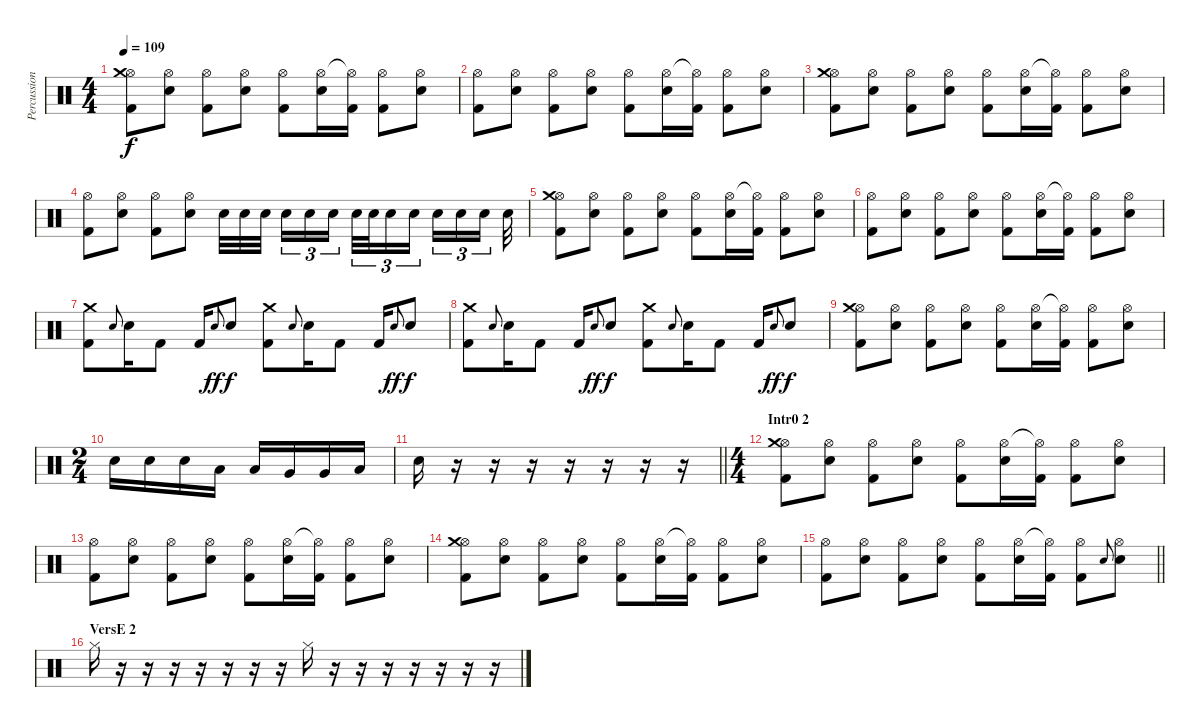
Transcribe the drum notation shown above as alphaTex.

\track ("Percussion" "Percussion") {instrument percussion}
\staff {score}
\articulation defaults
\ts (4 4)
\tempo 109
\clef neutral
\ks c
("Hi-Hat (open)" "Crash medium (hit)" "Kick (hit) 2").8{dy f} ("Hi-Hat (open)" "Electric Snare (hit)").8 ("Hi-Hat (open)" "Kick (hit) 2").8 ("Hi-Hat (open)" "Electric Snare (hit)").8 ("Hi-Hat (open)" "Kick (hit) 2").8 ("Hi-Hat (open)" "Electric Snare (hit)").16 ("Hi-Hat (open)"{t} "Kick (hit) 2").16 ("Hi-Hat (open)" "Kick (hit) 2").8 ("Hi-Hat (open)" "Electric Snare (hit)").8 |
("Hi-Hat (open)" "Kick (hit) 2").8 ("Hi-Hat (open)" "Electric Snare (hit)").8 ("Hi-Hat (open)" "Kick (hit) 2").8 ("Hi-Hat (open)" "Electric Snare (hit)").8 ("Hi-Hat (open)" "Kick (hit) 2").8 ("Hi-Hat (open)" "Electric Snare (hit)").16 ("Hi-Hat (open)"{t} "Kick (hit) 2").16 ("Hi-Hat (open)" "Kick (hit) 2").8 ("Hi-Hat (open)" "Electric Snare (hit)").8 |
("Hi-Hat (open)" "Crash medium (hit)" "Kick (hit) 2").8 ("Hi-Hat (open)" "Electric Snare (hit)").8 ("Hi-Hat (open)" "Kick (hit) 2").8 ("Hi-Hat (open)" "Electric Snare (hit)").8 ("Hi-Hat (open)" "Kick (hit) 2").8 ("Hi-Hat (open)" "Electric Snare (hit)").16 ("Hi-Hat (open)"{t} "Kick (hit) 2").16 ("Hi-Hat (open)" "Kick (hit) 2").8 ("Hi-Hat (open)" "Electric Snare (hit)").8 |
("Hi-Hat (open)" "Kick (hit) 2").8 ("Hi-Hat (open)" "Electric Snare (hit)").8 ("Hi-Hat (open)" "Kick (hit) 2").8 ("Hi-Hat (open)" "Electric Snare (hit)").8 "Electric Snare (hit)".32 "Electric Snare (hit)".32 "Electric Snare (hit)".32{beam splitsecondary} "Electric Snare (hit)".16{tu (3 2)} "Electric Snare (hit)".16{tu (3 2)} "Electric Snare (hit)".16{tu (3 2) beam splitsecondary} "Electric Snare (hit)".32{tu (3 2)} "Electric Snare (hit)".32{tu (3 2)} "Electric Snare (hit)".16{tu (3 2)} "Electric Snare (hit)".16{tu (3 2) beam splitsecondary} "Electric Snare (hit)".16{tu (3 2)} "Electric Snare (hit)".16{tu (3 2)} "Electric Snare (hit)".16{tu (3 2) beam splitsecondary} "Electric Snare (hit)".32 |
("Hi-Hat (open)" "Crash medium (hit)" "Kick (hit) 2").8 ("Hi-Hat (open)" "Electric Snare (hit)").8 ("Hi-Hat (open)" "Kick (hit) 2").8 ("Hi-Hat (open)" "Electric Snare (hit)").8 ("Hi-Hat (open)" "Kick (hit) 2").8 ("Hi-Hat (open)" "Electric Snare (hit)").16 ("Hi-Hat (open)"{t} "Kick (hit) 2").16 ("Hi-Hat (open)" "Kick (hit) 2").8 ("Hi-Hat (open)" "Electric Snare (hit)").8 |
("Hi-Hat (open)" "Kick (hit) 2").8 ("Hi-Hat (open)" "Electric Snare (hit)").8 ("Hi-Hat (open)" "Kick (hit) 2").8 ("Hi-Hat (open)" "Electric Snare (hit)").8 ("Hi-Hat (open)" "Kick (hit) 2").8 ("Hi-Hat (open)" "Electric Snare (hit)").16 ("Hi-Hat (open)"{t} "Kick (hit) 2").16 ("Hi-Hat (open)" "Kick (hit) 2").8 ("Hi-Hat (open)" "Electric Snare (hit)").8 |
("Crash medium (hit)" "Kick (hit) 2").8 "Electric Snare (hit)".8{gr onbeat} "Electric Snare (hit)".16 "Kick (hit) 2".8 "Kick (hit) 2".16 "Electric Snare (hit)".8{gr onbeat dy ff} "Electric Snare (hit)".8{dy f} ("Crash medium (hit)" "Kick (hit) 2").8 "Electric Snare (hit)".8{gr onbeat} "Electric Snare (hit)".16 "Kick (hit) 2".8 "Kick (hit) 2".16 "Electric Snare (hit)".8{gr onbeat dy ff} "Electric Snare (hit)".8{dy f} |
("Crash medium (hit)" "Kick (hit) 2").8 "Electric Snare (hit)".8{gr onbeat} "Electric Snare (hit)".16 "Kick (hit) 2".8 "Kick (hit) 2".16 "Electric Snare (hit)".8{gr onbeat dy ff} "Electric Snare (hit)".8{dy f} ("Crash medium (hit)" "Kick (hit) 2").8 "Electric Snare (hit)".8{gr onbeat} "Electric Snare (hit)".16 "Kick (hit) 2".8 "Kick (hit) 2".16 "Electric Snare (hit)".8{gr onbeat dy ff} "Electric Snare (hit)".8{dy f} |
("Hi-Hat (open)" "Crash medium (hit)" "Kick (hit) 2").8 ("Hi-Hat (open)" "Electric Snare (hit)").8 ("Hi-Hat (open)" "Kick (hit) 2").8 ("Hi-Hat (open)" "Electric Snare (hit)").8 ("Hi-Hat (open)" "Kick (hit) 2").8 ("Hi-Hat (open)" "Electric Snare (hit)").16 ("Hi-Hat (open)"{t} "Kick (hit) 2").16 ("Hi-Hat (open)" "Kick (hit) 2").8 ("Hi-Hat (open)" "Electric Snare (hit)").8 |
\ts (2 4)
"Electric Snare (hit)".16 "Electric Snare (hit)".16 "Electric Snare (hit)".16 "Low Floor Tom (hit)".16 "Low Floor Tom (hit)".16 "Very Low Tom (hit)".16 "Very Low Tom (hit)".16 "Low Floor Tom (hit)".16 |
\barLineRight lightlight "Electric Snare (hit)".16
r.16 r.16 r.16 r.16 r.16 r.16 r.16 |
\ts (4 4)
\section ("" "Intr0 2")
("Hi-Hat (open)" "Crash medium (hit)" "Kick (hit) 2").8 ("Hi-Hat (open)" "Electric Snare (hit)").8 ("Hi-Hat (open)" "Kick (hit) 2").8 ("Hi-Hat (open)" "Electric Snare (hit)").8 ("Hi-Hat (open)" "Kick (hit) 2").8 ("Hi-Hat (open)" "Electric Snare (hit)").16 ("Hi-Hat (open)"{t} "Kick (hit) 2").16 ("Hi-Hat (open)" "Kick (hit) 2").8 ("Hi-Hat (open)" "Electric Snare (hit)").8 |
("Hi-Hat (open)" "Kick (hit) 2").8 ("Hi-Hat (open)" "Electric Snare (hit)").8 ("Hi-Hat (open)" "Kick (hit) 2").8 ("Hi-Hat (open)" "Electric Snare (hit)").8 ("Hi-Hat (open)" "Kick (hit) 2").8 ("Hi-Hat (open)" "Electric Snare (hit)").16 ("Hi-Hat (open)"{t} "Kick (hit) 2").16 ("Hi-Hat (open)" "Kick (hit) 2").8 ("Hi-Hat (open)" "Electric Snare (hit)").8 |
("Hi-Hat (open)" "Crash medium (hit)" "Kick (hit) 2").8 ("Hi-Hat (open)" "Electric Snare (hit)").8 ("Hi-Hat (open)" "Kick (hit) 2").8 ("Hi-Hat (open)" "Electric Snare (hit)").8 ("Hi-Hat (open)" "Kick (hit) 2").8 ("Hi-Hat (open)" "Electric Snare (hit)").16 ("Hi-Hat (open)"{t} "Kick (hit) 2").16 ("Hi-Hat (open)" "Kick (hit) 2").8 ("Hi-Hat (open)" "Electric Snare (hit)").8 |
\barLineRight lightlight
("Hi-Hat (open)" "Kick (hit) 2").8 ("Hi-Hat (open)" "Electric Snare (hit)").8 ("Hi-Hat (open)" "Kick (hit) 2").8 ("Hi-Hat (open)" "Electric Snare (hit)").8 ("Hi-Hat (open)" "Kick (hit) 2").8 ("Hi-Hat (open)" "Electric Snare (hit)").16 ("Hi-Hat (open)"{t} "Kick (hit) 2").16 ("Hi-Hat (open)" "Kick (hit) 2").8 "Electric Snare (hit)".8{gr onbeat} ("Hi-Hat (open)" "Electric Snare (hit)").8 |
\section ("" "VersE 2")
"Hi-Hat (closed)".16 r.16 r.16 r.16 r.16 r.16 r.16 r.16 "Hi-Hat (closed)".16 r.16 r.16 r.16 r.16 r.16 r.16 r.16
